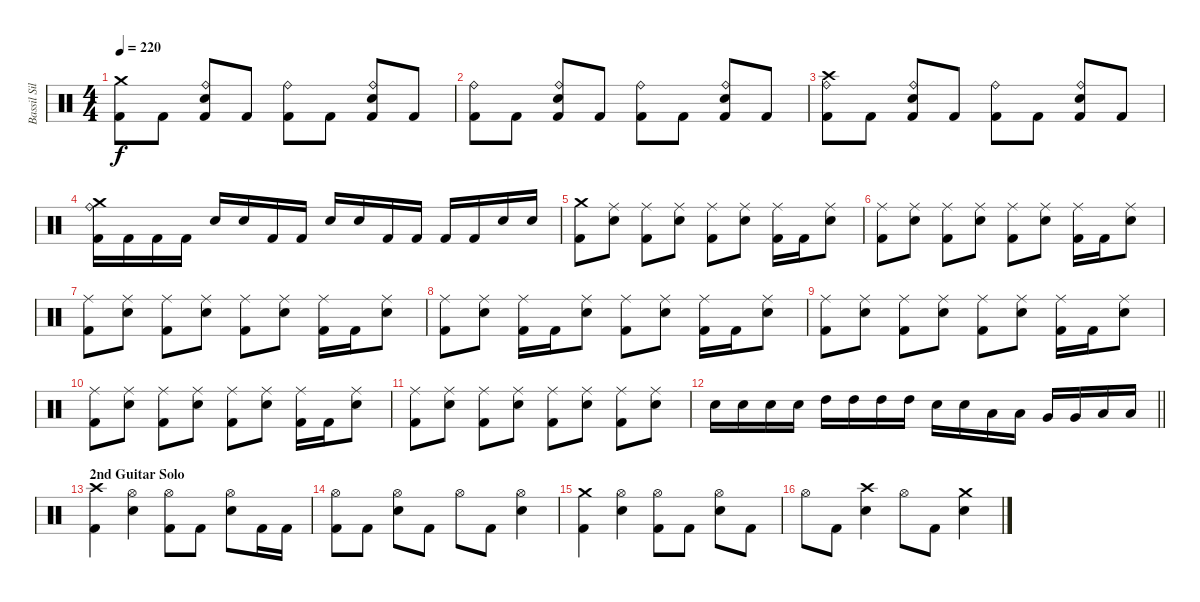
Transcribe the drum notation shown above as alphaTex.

\track ("Bassil Silver-Hajo" "Bassil Sil") {instrument percussion}
\staff {score}
\articulation defaults
\ts (4 4)
\tempo 220
\clef neutral
\ks c
("Crash medium (hit)" "Kick (hit) 2").8{dy f} "Kick (hit) 2".8 ("Ride (bell)" "Snare (hit) 2" "Kick (hit) 2").8 "Kick (hit) 2".8 ("Ride (bell)" "Kick (hit) 2").8 "Kick (hit) 2".8 ("Ride (bell)" "Snare (hit) 2" "Kick (hit) 2").8 "Kick (hit) 2".8 |
("Ride (bell)" "Kick (hit) 2").8 "Kick (hit) 2".8 ("Ride (bell)" "Snare (hit) 2" "Kick (hit) 2").8 "Kick (hit) 2".8 ("Ride (bell)" "Kick (hit) 2").8 "Kick (hit) 2".8 ("Ride (bell)" "Snare (hit) 2" "Kick (hit) 2").8 "Kick (hit) 2".8 |
("Crash high (hit)" "Ride (bell)" "Kick (hit) 2").8 "Kick (hit) 2".8 ("Ride (bell)" "Snare (hit) 2" "Kick (hit) 2").8 "Kick (hit) 2".8 ("Ride (bell)" "Kick (hit) 2").8 "Kick (hit) 2".8 ("Ride (bell)" "Snare (hit) 2" "Kick (hit) 2").8 "Kick (hit) 2".8 |
("Ride (bell)" "Crash medium (hit)" "Kick (hit) 2").16 "Kick (hit) 2".16 "Kick (hit) 2".16 "Kick (hit) 2".16 "Snare (hit) 2".16 "Snare (hit) 2".16 "Kick (hit) 2".16 "Kick (hit) 2".16 "Snare (hit) 2".16 "Snare (hit) 2".16 "Kick (hit) 2".16 "Kick (hit) 2".16 "Kick (hit) 2".16 "Kick (hit) 2".16 "Snare (hit) 2".16 "Snare (hit) 2".16 |
("Crash medium (hit)" "Kick (hit) 2").8 ("Ride (middle)" "Snare (hit) 2").8 ("Ride (middle)" "Kick (hit) 2").8 ("Ride (middle)" "Snare (hit) 2").8 ("Ride (middle)" "Kick (hit) 2").8 ("Ride (middle)" "Snare (hit) 2").8 ("Ride (middle)" "Kick (hit) 2").16 "Kick (hit) 2".16 ("Ride (middle)" "Snare (hit) 2").8 |
("Ride (middle)" "Kick (hit) 2").8 ("Ride (middle)" "Snare (hit) 2").8 ("Ride (middle)" "Kick (hit) 2").8 ("Ride (middle)" "Snare (hit) 2").8 ("Ride (middle)" "Kick (hit) 2").8 ("Ride (middle)" "Snare (hit) 2").8 ("Ride (middle)" "Kick (hit) 2").16 "Kick (hit) 2".16 ("Ride (middle)" "Snare (hit) 2").8 |
("Ride (middle)" "Kick (hit) 2").8 ("Ride (middle)" "Snare (hit) 2").8 ("Ride (middle)" "Kick (hit) 2").8 ("Ride (middle)" "Snare (hit) 2").8 ("Ride (middle)" "Kick (hit) 2").8 ("Ride (middle)" "Snare (hit) 2").8 ("Ride (middle)" "Kick (hit) 2").16 "Kick (hit) 2".16 ("Ride (middle)" "Snare (hit) 2").8 |
("Ride (middle)" "Kick (hit) 2").8 ("Ride (middle)" "Snare (hit) 2").8 ("Ride (middle)" "Kick (hit) 2").16 "Kick (hit) 2".16 ("Ride (middle)" "Snare (hit) 2").8 ("Ride (middle)" "Kick (hit) 2").8 ("Ride (middle)" "Snare (hit) 2").8 ("Ride (middle)" "Kick (hit) 2").16 "Kick (hit) 2".16 ("Ride (middle)" "Snare (hit) 2").8 |
("Ride (middle)" "Kick (hit) 2").8 ("Ride (middle)" "Snare (hit) 2").8 ("Ride (middle)" "Kick (hit) 2").8 ("Ride (middle)" "Snare (hit) 2").8 ("Ride (middle)" "Kick (hit) 2").8 ("Ride (middle)" "Snare (hit) 2").8 ("Ride (middle)" "Kick (hit) 2").16 "Kick (hit) 2".16 ("Ride (middle)" "Snare (hit) 2").8 |
("Ride (middle)" "Kick (hit) 2").8 ("Ride (middle)" "Snare (hit) 2").8 ("Ride (middle)" "Kick (hit) 2").8 ("Ride (middle)" "Snare (hit) 2").8 ("Ride (middle)" "Kick (hit) 2").8 ("Ride (middle)" "Snare (hit) 2").8 ("Ride (middle)" "Kick (hit) 2").16 "Kick (hit) 2".16 ("Ride (middle)" "Snare (hit) 2").8 |
("Ride (middle)" "Kick (hit) 2").8 ("Ride (middle)" "Snare (hit) 2").8 ("Ride (middle)" "Kick (hit) 2").8 ("Ride (middle)" "Snare (hit) 2").8 ("Ride (middle)" "Kick (hit) 2").8 ("Ride (middle)" "Snare (hit) 2").8 ("Ride (middle)" "Kick (hit) 2").8 ("Ride (middle)" "Snare (hit) 2").8 |
\barLineRight lightlight "Snare (hit) 2".16 "Snare (hit) 2".16 "Snare (hit) 2".16 "Snare (hit) 2".16 "High Tom (hit)".16 "High Tom (hit)".16 "High Tom (hit)".16 "High Tom (hit)".16 "Snare (hit) 2".16 "Snare (hit) 2".16 "Low Tom (hit)".16 "Low Tom (hit)".16 "Very Low Tom (hit)".16 "Very Low Tom (hit)".16 "Low Floor Tom (hit)".16 "Low Floor Tom (hit)".16
|
\section ("" "2nd Guitar Solo")
("Crash high (hit)" "Kick (hit) 2").4 ("Hi-Hat (open)" "Snare (hit) 2").4 ("Hi-Hat (open)" "Kick (hit) 2").8 "Kick (hit) 2".8 ("Hi-Hat (open)" "Snare (hit) 2").8 "Kick (hit) 2".16 "Kick (hit) 2".16 |
("Hi-Hat (open)" "Kick (hit) 2").8 "Kick (hit) 2".8 ("Hi-Hat (open)" "Snare (hit) 2").8 "Kick (hit) 2".8 "Hi-Hat (open)".8 "Kick (hit) 2".8 ("Hi-Hat (open)" "Snare (hit) 2").4 |
("Crash medium (hit)" "Kick (hit) 2").4 ("Hi-Hat (open)" "Snare (hit) 2").4 ("Hi-Hat (open)" "Kick (hit) 2").8 "Kick (hit) 2".8 ("Hi-Hat (open)" "Snare (hit) 2").8 "Kick (hit) 2".8 |
"Hi-Hat (open)".8 "Kick (hit) 2".8 ("Crash high (hit)" "Snare (hit) 2").4 "Hi-Hat (open)".8 "Kick (hit) 2".8 ("Crash medium (hit)" "Snare (hit) 2").4
